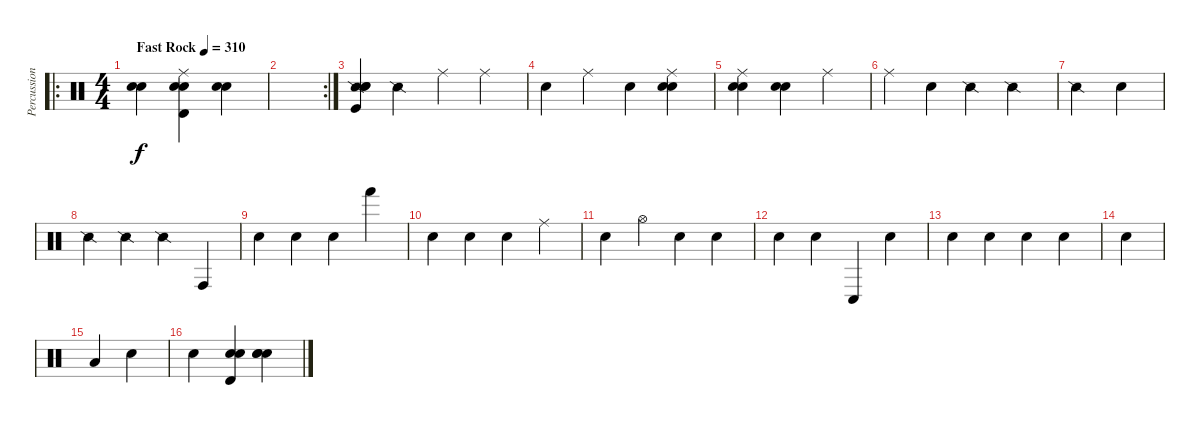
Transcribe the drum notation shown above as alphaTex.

\track ("Percussion" "Percussion") {instrument percussion}
\staff {score}
\articulation defaults
\ro
\ts (4 4)
\tempo (310 "Fast Rock")
\clef neutral
\ks c
("Snare (hit)" "Snare (hit)").4{dy f} ("Timbale high (hit)" "Snare (hit)" "Snare (hit)" "Ride (middle)").4 ("Snare (hit)" "Snare (hit)").4 |
\rc 2
|
("Snare (side stick) 2" "Snare (hit)" "Kick (hit)" "Snare (hit)").4 "Snare (side stick) 2".4 "Ride (middle)".4 "Ride (middle)".4 |
"Snare (hit)".4 "Ride (middle)".4 "Snare (hit)".4 ("Snare (hit)" "Ride (middle)" "Snare (hit)").4 |
("Snare (hit)" "Snare (hit)" "Ride (middle)").4 ("Snare (hit)" "Snare (hit)").4 "Ride (middle)".4 |
"Ride (middle)".4 "Snare (hit)".4 "Snare (side stick) 2".4 "Snare (side stick) 2".4 |
"Snare (side stick) 2".4 "Snare (hit)".4 |
"Snare (side stick) 2".4 "Snare (side stick) 2".4 "Snare (side stick) 2".4 "Conga high (hit)".4 |
"Snare (hit)".4 "Snare (hit)".4 "Snare (hit)".4 "Hand (hit)".4 |
"Snare (hit)".4 "Snare (hit)".4 "Snare (hit)".4 "Ride (middle)".4 |
"Snare (hit)".4 "Hi-Hat (open)".4 "Snare (hit)".4 "Snare (hit)".4 |
"Snare (hit)".4 "Snare (hit)".4 "Conga low (hit)".4 "Snare (hit)".4 |
"Snare (hit)".4 "Snare (hit)".4 "Snare (hit)".4 "Snare (hit)".4 |
"Snare (hit)".4 |
"Low Floor Tom (hit)".4 "Snare (hit)".4 |
"Snare (hit)".4 ("Snare (hit)" "Snare (hit)" "Timbale high (hit)").4 ("Snare (hit)" "Snare (hit)" "Snare (hit)").4
